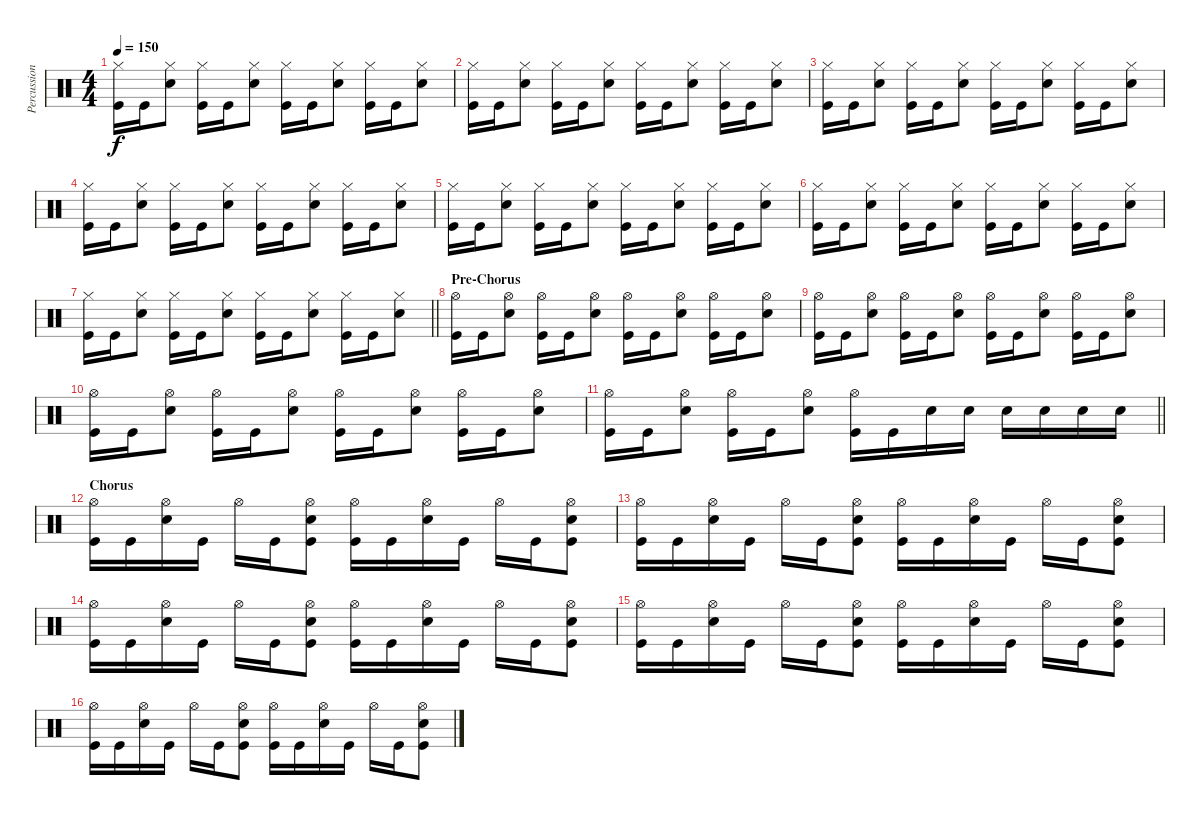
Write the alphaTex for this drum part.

\track ("Percussion" "Percussion") {instrument percussion}
\staff {score}
\articulation defaults
\ts (4 4)
\tempo 150
\clef neutral
\ks c
("Hi-Hat (closed)" "Kick (hit)").16{dy f} "Kick (hit)".16 ("Hi-Hat (closed)" "Electric Snare (hit)").8 ("Hi-Hat (closed)" "Kick (hit)").16 "Kick (hit)".16 ("Hi-Hat (closed)" "Electric Snare (hit)").8 ("Hi-Hat (closed)" "Kick (hit)").16 "Kick (hit)".16 ("Hi-Hat (closed)" "Electric Snare (hit)").8 ("Hi-Hat (closed)" "Kick (hit)").16 "Kick (hit)".16 ("Hi-Hat (closed)" "Electric Snare (hit)").8 |
("Hi-Hat (closed)" "Kick (hit)").16 "Kick (hit)".16 ("Hi-Hat (closed)" "Electric Snare (hit)").8 ("Hi-Hat (closed)" "Kick (hit)").16 "Kick (hit)".16 ("Hi-Hat (closed)" "Electric Snare (hit)").8 ("Hi-Hat (closed)" "Kick (hit)").16 "Kick (hit)".16 ("Hi-Hat (closed)" "Electric Snare (hit)").8 ("Hi-Hat (closed)" "Kick (hit)").16 "Kick (hit)".16 ("Hi-Hat (closed)" "Electric Snare (hit)").8 |
("Hi-Hat (closed)" "Kick (hit)").16 "Kick (hit)".16 ("Hi-Hat (closed)" "Electric Snare (hit)").8 ("Hi-Hat (closed)" "Kick (hit)").16 "Kick (hit)".16 ("Hi-Hat (closed)" "Electric Snare (hit)").8 ("Hi-Hat (closed)" "Kick (hit)").16 "Kick (hit)".16 ("Hi-Hat (closed)" "Electric Snare (hit)").8 ("Hi-Hat (closed)" "Kick (hit)").16 "Kick (hit)".16 ("Hi-Hat (closed)" "Electric Snare (hit)").8 |
("Hi-Hat (closed)" "Kick (hit)").16 "Kick (hit)".16 ("Hi-Hat (closed)" "Electric Snare (hit)").8 ("Hi-Hat (closed)" "Kick (hit)").16 "Kick (hit)".16 ("Hi-Hat (closed)" "Electric Snare (hit)").8 ("Hi-Hat (closed)" "Kick (hit)").16 "Kick (hit)".16 ("Hi-Hat (closed)" "Electric Snare (hit)").8 ("Hi-Hat (closed)" "Kick (hit)").16 "Kick (hit)".16 ("Hi-Hat (closed)" "Electric Snare (hit)").8 |
("Hi-Hat (closed)" "Kick (hit)").16 "Kick (hit)".16 ("Hi-Hat (closed)" "Electric Snare (hit)").8 ("Hi-Hat (closed)" "Kick (hit)").16 "Kick (hit)".16 ("Hi-Hat (closed)" "Electric Snare (hit)").8 ("Hi-Hat (closed)" "Kick (hit)").16 "Kick (hit)".16 ("Hi-Hat (closed)" "Electric Snare (hit)").8 ("Hi-Hat (closed)" "Kick (hit)").16 "Kick (hit)".16 ("Hi-Hat (closed)" "Electric Snare (hit)").8 |
("Hi-Hat (closed)" "Kick (hit)").16 "Kick (hit)".16 ("Hi-Hat (closed)" "Electric Snare (hit)").8 ("Hi-Hat (closed)" "Kick (hit)").16 "Kick (hit)".16 ("Hi-Hat (closed)" "Electric Snare (hit)").8 ("Hi-Hat (closed)" "Kick (hit)").16 "Kick (hit)".16 ("Hi-Hat (closed)" "Electric Snare (hit)").8 ("Hi-Hat (closed)" "Kick (hit)").16 "Kick (hit)".16 ("Hi-Hat (closed)" "Electric Snare (hit)").8 |
\barLineRight lightlight
("Hi-Hat (closed)" "Kick (hit)").16 "Kick (hit)".16 ("Hi-Hat (closed)" "Electric Snare (hit)").8 ("Hi-Hat (closed)" "Kick (hit)").16 "Kick (hit)".16 ("Hi-Hat (closed)" "Electric Snare (hit)").8 ("Hi-Hat (closed)" "Kick (hit)").16 "Kick (hit)".16 ("Hi-Hat (closed)" "Electric Snare (hit)").8 ("Hi-Hat (closed)" "Kick (hit)").16 "Kick (hit)".16 ("Hi-Hat (closed)" "Electric Snare (hit)").8 |
\section ("" "Pre-Chorus")
("Hi-Hat (open)" "Kick (hit)").16 "Kick (hit)".16 ("Hi-Hat (open)" "Electric Snare (hit)").8 ("Hi-Hat (open)" "Kick (hit)").16 "Kick (hit)".16 ("Hi-Hat (open)" "Electric Snare (hit)").8 ("Hi-Hat (open)" "Kick (hit)").16 "Kick (hit)".16 ("Hi-Hat (open)" "Electric Snare (hit)").8 ("Hi-Hat (open)" "Kick (hit)").16 "Kick (hit)".16 ("Hi-Hat (open)" "Electric Snare (hit)").8 |
("Hi-Hat (open)" "Kick (hit)").16 "Kick (hit)".16 ("Hi-Hat (open)" "Electric Snare (hit)").8 ("Hi-Hat (open)" "Kick (hit)").16 "Kick (hit)".16 ("Hi-Hat (open)" "Electric Snare (hit)").8 ("Hi-Hat (open)" "Kick (hit)").16 "Kick (hit)".16 ("Hi-Hat (open)" "Electric Snare (hit)").8 ("Hi-Hat (open)" "Kick (hit)").16 "Kick (hit)".16 ("Hi-Hat (open)" "Electric Snare (hit)").8 |
("Hi-Hat (open)" "Kick (hit)").16 "Kick (hit)".16 ("Hi-Hat (open)" "Electric Snare (hit)").8 ("Hi-Hat (open)" "Kick (hit)").16 "Kick (hit)".16 ("Hi-Hat (open)" "Electric Snare (hit)").8 ("Hi-Hat (open)" "Kick (hit)").16 "Kick (hit)".16 ("Hi-Hat (open)" "Electric Snare (hit)").8 ("Hi-Hat (open)" "Kick (hit)").16 "Kick (hit)".16 ("Hi-Hat (open)" "Electric Snare (hit)").8 |
\barLineRight lightlight
("Hi-Hat (open)" "Kick (hit)").16 "Kick (hit)".16 ("Hi-Hat (open)" "Electric Snare (hit)").8 ("Hi-Hat (open)" "Kick (hit)").16 "Kick (hit)".16 ("Hi-Hat (open)" "Electric Snare (hit)").8 ("Hi-Hat (open)" "Kick (hit)").16 "Kick (hit)".16 "Electric Snare (hit)".16 "Electric Snare (hit)".16 "Electric Snare (hit)".16 "Electric Snare (hit)".16 "Electric Snare (hit)".16 "Electric Snare (hit)".16 |
\section ("" "Chorus")
("Hi-Hat (open)" "Kick (hit)").16 "Kick (hit)".16 ("Hi-Hat (open)" "Electric Snare (hit)").16 "Kick (hit)".16 "Hi-Hat (open)".16 "Kick (hit)".16 ("Hi-Hat (open)" "Electric Snare (hit)" "Kick (hit)").8 ("Hi-Hat (open)" "Kick (hit)").16 "Kick (hit)".16 ("Hi-Hat (open)" "Electric Snare (hit)").16 "Kick (hit)".16 "Hi-Hat (open)".16 "Kick (hit)".16 ("Hi-Hat (open)" "Electric Snare (hit)" "Kick (hit)").8 |
("Hi-Hat (open)" "Kick (hit)").16 "Kick (hit)".16 ("Hi-Hat (open)" "Electric Snare (hit)").16 "Kick (hit)".16 "Hi-Hat (open)".16 "Kick (hit)".16 ("Hi-Hat (open)" "Electric Snare (hit)" "Kick (hit)").8 ("Hi-Hat (open)" "Kick (hit)").16 "Kick (hit)".16 ("Hi-Hat (open)" "Electric Snare (hit)").16 "Kick (hit)".16 "Hi-Hat (open)".16 "Kick (hit)".16 ("Hi-Hat (open)" "Electric Snare (hit)" "Kick (hit)").8 |
("Hi-Hat (open)" "Kick (hit)").16 "Kick (hit)".16 ("Hi-Hat (open)" "Electric Snare (hit)").16 "Kick (hit)".16 "Hi-Hat (open)".16 "Kick (hit)".16 ("Hi-Hat (open)" "Electric Snare (hit)" "Kick (hit)").8 ("Hi-Hat (open)" "Kick (hit)").16 "Kick (hit)".16 ("Hi-Hat (open)" "Electric Snare (hit)").16 "Kick (hit)".16 "Hi-Hat (open)".16 "Kick (hit)".16 ("Hi-Hat (open)" "Electric Snare (hit)" "Kick (hit)").8 |
("Hi-Hat (open)" "Kick (hit)").16 "Kick (hit)".16 ("Hi-Hat (open)" "Electric Snare (hit)").16 "Kick (hit)".16 "Hi-Hat (open)".16 "Kick (hit)".16 ("Hi-Hat (open)" "Electric Snare (hit)" "Kick (hit)").8 ("Hi-Hat (open)" "Kick (hit)").16 "Kick (hit)".16 ("Hi-Hat (open)" "Electric Snare (hit)").16 "Kick (hit)".16 "Hi-Hat (open)".16 "Kick (hit)".16 ("Hi-Hat (open)" "Electric Snare (hit)" "Kick (hit)").8 |
("Hi-Hat (open)" "Kick (hit)").16 "Kick (hit)".16 ("Hi-Hat (open)" "Electric Snare (hit)").16 "Kick (hit)".16 "Hi-Hat (open)".16 "Kick (hit)".16 ("Hi-Hat (open)" "Electric Snare (hit)" "Kick (hit)").8 ("Hi-Hat (open)" "Kick (hit)").16 "Kick (hit)".16 ("Hi-Hat (open)" "Electric Snare (hit)").16 "Kick (hit)".16 "Hi-Hat (open)".16 "Kick (hit)".16 ("Hi-Hat (open)" "Electric Snare (hit)" "Kick (hit)").8
